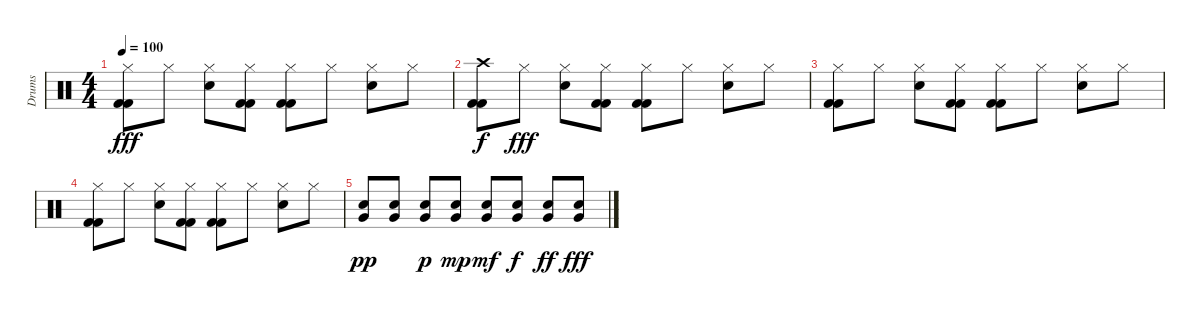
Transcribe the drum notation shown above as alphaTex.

\track ("Drums" "Drums") {instrument percussion}
\staff {score}
\articulation defaults
\ts (4 4)
\tempo 100
\clef neutral
\ks c
("Hi-Hat (closed)" "Kick (hit) 2" "Kick (hit) 2").8{dy fff} "Hi-Hat (closed)".8 ("Hi-Hat (closed)" "Electric Snare (hit)").8 ("Hi-Hat (closed)" "Kick (hit) 2" "Kick (hit) 2").8 ("Hi-Hat (closed)" "Kick (hit) 2" "Kick (hit) 2").8 "Hi-Hat (closed)".8 ("Hi-Hat (closed)" "Electric Snare (hit)").8 "Hi-Hat (closed)".8 |
("Crash high (hit)" "Kick (hit) 2" "Kick (hit) 2").8{dy f volume 0} "Hi-Hat (closed)".8{dy fff} ("Hi-Hat (closed)" "Electric Snare (hit)").8 ("Hi-Hat (closed)" "Kick (hit) 2" "Kick (hit) 2").8 ("Hi-Hat (closed)" "Kick (hit) 2" "Kick (hit) 2").8 "Hi-Hat (closed)".8 ("Hi-Hat (closed)" "Electric Snare (hit)").8 "Hi-Hat (closed)".8 |
("Hi-Hat (closed)" "Kick (hit) 2" "Kick (hit) 2").8 "Hi-Hat (closed)".8 ("Hi-Hat (closed)" "Electric Snare (hit)").8 ("Hi-Hat (closed)" "Kick (hit) 2" "Kick (hit) 2").8 ("Hi-Hat (closed)" "Kick (hit) 2" "Kick (hit) 2").8 "Hi-Hat (closed)".8 ("Hi-Hat (closed)" "Electric Snare (hit)").8 "Hi-Hat (closed)".8 |
("Hi-Hat (closed)" "Kick (hit) 2" "Kick (hit) 2").8 "Hi-Hat (closed)".8 ("Hi-Hat (closed)" "Electric Snare (hit)").8 ("Hi-Hat (closed)" "Kick (hit) 2" "Kick (hit) 2").8 ("Hi-Hat (closed)" "Kick (hit) 2" "Kick (hit) 2").8 "Hi-Hat (closed)".8 ("Hi-Hat (closed)" "Electric Snare (hit)").8 "Hi-Hat (closed)".8 |
("Very Low Tom (hit)" "Electric Snare (hit)").8{dy pp} ("Very Low Tom (hit)" "Electric Snare (hit)").8 ("Very Low Tom (hit)" "Electric Snare (hit)").8{dy p} ("Very Low Tom (hit)" "Electric Snare (hit)").8{dy mp} ("Very Low Tom (hit)" "Electric Snare (hit)").8{dy mf} ("Very Low Tom (hit)" "Electric Snare (hit)").8{dy f} ("Very Low Tom (hit)" "Electric Snare (hit)").8{dy ff} ("Very Low Tom (hit)" "Electric Snare (hit)").8{dy fff}
